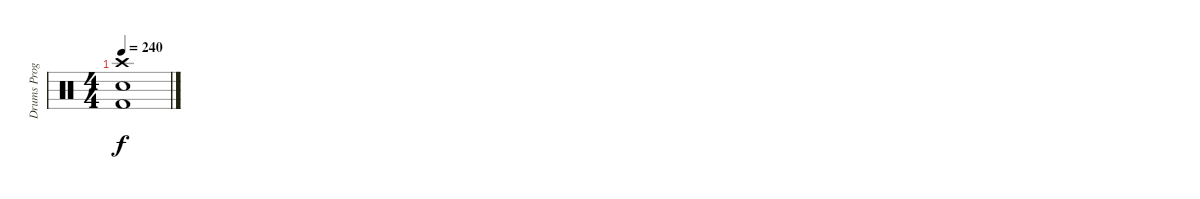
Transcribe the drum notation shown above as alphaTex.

\track ("Drums Programming" "Drums Prog") {instrument percussion}
\staff {score}
\articulation defaults
\ts (4 4)
\tempo 240
\clef neutral
\ks c
("Crash high (hit)" "Electric Snare (hit)" "Kick (hit) 2").1{dy f}
